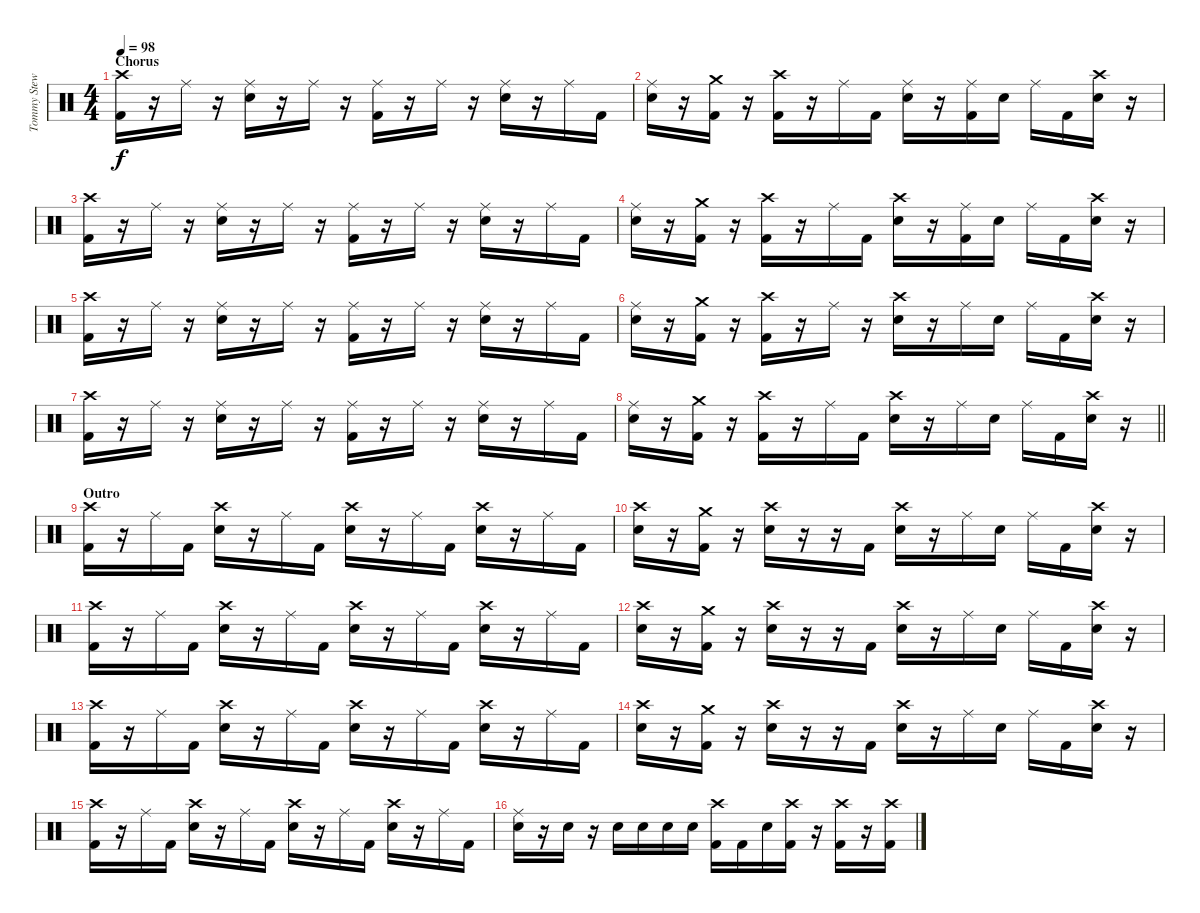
\track ("Tommy Stewart - Drums" "Tommy Stew") {instrument percussion}
\staff {score}
\articulation defaults
\ts (4 4)
\section ("" "Chorus")
\tempo 98
\clef neutral
\ks c
("Crash high (hit)" "Kick (hit) 2").16{dy f} r.16 "Ride (middle)".16 r.16 ("Ride (middle)" "Snare (hit) 2").16 r.16 "Ride (middle)".16 r.16 ("Ride (middle)" "Kick (hit) 2").16 r.16 "Ride (middle)".16 r.16 ("Ride (middle)" "Snare (hit) 2").16 r.16 "Ride (middle)".16 "Kick (hit) 2".16 |
("Ride (middle)" "Snare (hit) 2").16 r.16 ("Crash medium (hit)" "Kick (hit) 2").16 r.16 ("Crash high (hit)" "Kick (hit) 2").16 r.16 "Ride (middle)".16 "Kick (hit) 2".16 ("Ride (middle)" "Snare (hit) 2").16 r.16 ("Ride (middle)" "Kick (hit) 2").16 "Snare (hit) 2".16 "Ride (middle)".16 "Kick (hit) 2".16 ("Crash high (hit)" "Snare (hit) 2").16 r.16 |
("Crash high (hit)" "Kick (hit) 2").16 r.16 "Ride (middle)".16 r.16 ("Ride (middle)" "Snare (hit) 2").16 r.16 "Ride (middle)".16 r.16 ("Ride (middle)" "Kick (hit) 2").16 r.16 "Ride (middle)".16 r.16 ("Ride (middle)" "Snare (hit) 2").16 r.16 "Ride (middle)".16 "Kick (hit) 2".16 |
("Ride (middle)" "Snare (hit) 2").16 r.16 ("Crash medium (hit)" "Kick (hit) 2").16 r.16 ("Crash high (hit)" "Kick (hit) 2").16 r.16 "Ride (middle)".16 "Kick (hit) 2".16 ("Crash high (hit)" "Snare (hit) 2").16 r.16 ("Ride (middle)" "Kick (hit) 2").16 "Snare (hit) 2".16 "Ride (middle)".16 "Kick (hit) 2".16 ("Crash high (hit)" "Snare (hit) 2").16 r.16 |
("Crash high (hit)" "Kick (hit) 2").16 r.16 "Ride (middle)".16 r.16 ("Ride (middle)" "Snare (hit) 2").16 r.16 "Ride (middle)".16 r.16 ("Ride (middle)" "Kick (hit) 2").16 r.16 "Ride (middle)".16 r.16 ("Ride (middle)" "Snare (hit) 2").16 r.16 "Ride (middle)".16 "Kick (hit) 2".16 |
("Ride (middle)" "Snare (hit) 2").16 r.16 ("Crash medium (hit)" "Kick (hit) 2").16 r.16 ("Crash high (hit)" "Kick (hit) 2").16 r.16 "Ride (middle)".16 r.16 ("Crash high (hit)" "Snare (hit) 2").16 r.16 "Ride (middle)".16 "Snare (hit) 2".16 "Ride (middle)".16 "Kick (hit) 2".16 ("Crash high (hit)" "Snare (hit) 2").16 r.16 |
("Crash high (hit)" "Kick (hit) 2").16 r.16 "Ride (middle)".16 r.16 ("Ride (middle)" "Snare (hit) 2").16 r.16 "Ride (middle)".16 r.16 ("Ride (middle)" "Kick (hit) 2").16 r.16 "Ride (middle)".16 r.16 ("Ride (middle)" "Snare (hit) 2").16 r.16 "Ride (middle)".16 "Kick (hit) 2".16 |
\barLineRight lightlight
("Ride (middle)" "Snare (hit) 2").16 r.16 ("Crash medium (hit)" "Kick (hit) 2").16 r.16 ("Crash high (hit)" "Kick (hit) 2").16 r.16 "Ride (middle)".16 "Kick (hit) 2".16 ("Crash high (hit)" "Snare (hit) 2").16 r.16 "Ride (middle)".16 "Snare (hit) 2".16 "Ride (middle)".16 "Kick (hit) 2".16 ("Crash high (hit)" "Snare (hit) 2").16 r.16 |
\section ("" "Outro")
("Crash high (hit)" "Kick (hit) 2").16 r.16 "Ride (middle)".16 "Kick (hit) 2".16 ("Crash high (hit)" "Snare (hit) 2").16 r.16 "Ride (middle)".16 "Kick (hit) 2".16 ("Crash high (hit)" "Snare (hit) 2").16 r.16 "Ride (middle)".16 "Kick (hit) 2".16 ("Crash high (hit)" "Snare (hit) 2").16 r.16 "Ride (middle)".16 "Kick (hit) 2".16 |
("Crash high (hit)" "Snare (hit) 2").16 r.16 ("Crash medium (hit)" "Kick (hit) 2").16 r.16 ("Crash high (hit)" "Snare (hit) 2").16 r.16 r.16 "Kick (hit) 2".16 ("Crash high (hit)" "Snare (hit) 2").16 r.16 "Ride (middle)".16 "Snare (hit) 2".16 "Ride (middle)".16 "Kick (hit) 2".16 ("Crash high (hit)" "Snare (hit) 2").16 r.16 |
("Crash high (hit)" "Kick (hit) 2").16 r.16 "Ride (middle)".16 "Kick (hit) 2".16 ("Crash high (hit)" "Snare (hit) 2").16 r.16 "Ride (middle)".16 "Kick (hit) 2".16 ("Crash high (hit)" "Snare (hit) 2").16 r.16 "Ride (middle)".16 "Kick (hit) 2".16 ("Crash high (hit)" "Snare (hit) 2").16 r.16 "Ride (middle)".16 "Kick (hit) 2".16 |
("Crash high (hit)" "Snare (hit) 2").16 r.16 ("Crash medium (hit)" "Kick (hit) 2").16 r.16 ("Crash high (hit)" "Snare (hit) 2").16 r.16 r.16 "Kick (hit) 2".16 ("Crash high (hit)" "Snare (hit) 2").16 r.16 "Ride (middle)".16 "Snare (hit) 2".16 "Ride (middle)".16 "Kick (hit) 2".16 ("Crash high (hit)" "Snare (hit) 2").16 r.16 |
("Crash high (hit)" "Kick (hit) 2").16 r.16 "Ride (middle)".16 "Kick (hit) 2".16 ("Crash high (hit)" "Snare (hit) 2").16 r.16 "Ride (middle)".16 "Kick (hit) 2".16 ("Crash high (hit)" "Snare (hit) 2").16 r.16 "Ride (middle)".16 "Kick (hit) 2".16 ("Crash high (hit)" "Snare (hit) 2").16 r.16 "Ride (middle)".16 "Kick (hit) 2".16 |
("Crash high (hit)" "Snare (hit) 2").16 r.16 ("Crash medium (hit)" "Kick (hit) 2").16 r.16 ("Crash high (hit)" "Snare (hit) 2").16 r.16 r.16 "Kick (hit) 2".16 ("Crash high (hit)" "Snare (hit) 2").16 r.16 "Ride (middle)".16 "Snare (hit) 2".16 "Ride (middle)".16 "Kick (hit) 2".16 ("Crash high (hit)" "Snare (hit) 2").16 r.16 |
("Crash high (hit)" "Kick (hit) 2").16 r.16 "Ride (middle)".16 "Kick (hit) 2".16 ("Crash high (hit)" "Snare (hit) 2").16 r.16 "Ride (middle)".16 "Kick (hit) 2".16 ("Crash high (hit)" "Snare (hit) 2").16 r.16 "Ride (middle)".16 "Kick (hit) 2".16 ("Crash high (hit)" "Snare (hit) 2").16 r.16 "Ride (middle)".16 "Kick (hit) 2".16 |
("Ride (middle)" "Snare (hit) 2").16 r.16 "Snare (hit) 2".16 r.16 "Snare (hit) 2".16 "Snare (hit) 2".16 "Snare (hit) 2".16 "Snare (hit) 2".16 ("Crash high (hit)" "Kick (hit) 2").16 "Kick (hit) 2".16 "Snare (hit) 2".16 ("Crash high (hit)" "Kick (hit) 2").16 r.16 ("Crash high (hit)" "Kick (hit) 2").16 r.16 ("Crash high (hit)" "Kick (hit) 2").16
